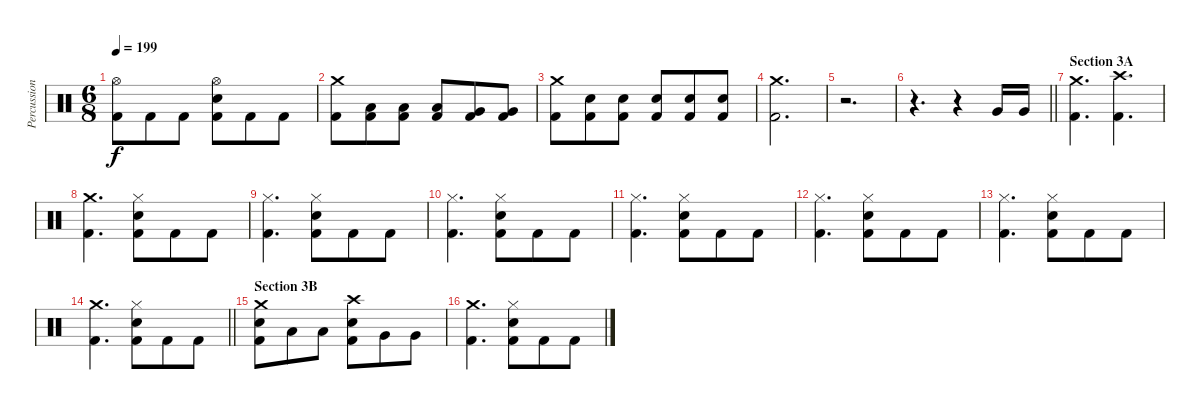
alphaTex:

\track ("Percussion" "Percussion") {instrument percussion}
\staff {score}
\articulation defaults
\ts (6 8)
\tempo 199
\clef neutral
\ks c
("Hi-Hat (open)" "Kick (hit) 2").8{dy f} "Kick (hit) 2".8 "Kick (hit) 2".8 ("Hi-Hat (open)" "Electric Snare (hit)" "Kick (hit) 2").8 "Kick (hit) 2".8 "Kick (hit) 2".8 |
("Crash medium (hit)" "Kick (hit) 2").8 ("Low Tom (hit)" "Kick (hit) 2").8 ("Low Tom (hit)" "Kick (hit) 2").8 ("Low Tom (hit)" "Kick (hit) 2").8 ("Very Low Tom (hit)" "Kick (hit) 2").8 ("Very Low Tom (hit)" "Kick (hit) 2").8 |
("Crash medium (hit)" "Kick (hit) 2").8 ("Electric Snare (hit)" "Kick (hit) 2").8 ("Electric Snare (hit)" "Kick (hit) 2").8 ("Electric Snare (hit)" "Kick (hit) 2").8 ("Electric Snare (hit)" "Kick (hit) 2").8 ("Electric Snare (hit)" "Kick (hit) 2").8 |
("Crash medium (hit)" "Kick (hit) 2").2{d} |
r.2{d} |
\barLineRight lightlight
r.4{d} r.4 "Very Low Tom (hit)".16 "Very Low Tom (hit)".16 |
\section ("" "Section 3A")
("Crash medium (hit)" "Kick (hit) 2").4{d} ("Crash high (hit)" "Kick (hit) 2").4{d} |
("Crash medium (hit)" "Kick (hit) 2").4{d} ("Hi-Hat (closed)" "Electric Snare (hit)" "Kick (hit) 2").8 "Kick (hit) 2".8 "Kick (hit) 2".8 |
("Hi-Hat (closed)" "Kick (hit) 2").4{d} ("Hi-Hat (closed)" "Electric Snare (hit)" "Kick (hit) 2").8 "Kick (hit) 2".8 "Kick (hit) 2".8 |
("Hi-Hat (closed)" "Kick (hit) 2").4{d} ("Hi-Hat (closed)" "Electric Snare (hit)" "Kick (hit) 2").8 "Kick (hit) 2".8 "Kick (hit) 2".8 |
("Hi-Hat (closed)" "Kick (hit) 2").4{d} ("Hi-Hat (closed)" "Electric Snare (hit)" "Kick (hit) 2").8 "Kick (hit) 2".8 "Kick (hit) 2".8 |
("Hi-Hat (closed)" "Kick (hit) 2").4{d} ("Hi-Hat (closed)" "Electric Snare (hit)" "Kick (hit) 2").8 "Kick (hit) 2".8 "Kick (hit) 2".8 |
("Hi-Hat (closed)" "Kick (hit) 2").4{d} ("Hi-Hat (closed)" "Electric Snare (hit)" "Kick (hit) 2").8 "Kick (hit) 2".8 "Kick (hit) 2".8 |
\barLineRight lightlight
("Crash medium (hit)" "Kick (hit) 2").4{d} ("Hi-Hat (closed)" "Electric Snare (hit)" "Kick (hit) 2").8 "Kick (hit) 2".8 "Kick (hit) 2".8 |
\section ("" "Section 3B")
("Crash medium (hit)" "Electric Snare (hit)" "Kick (hit) 2").8 "Low Tom (hit)".8 "Low Tom (hit)".8 ("Crash high (hit)" "Electric Snare (hit)" "Kick (hit) 2").8 "Very Low Tom (hit)".8 "Very Low Tom (hit)".8 |
("Crash medium (hit)" "Kick (hit) 2").4{d} ("Hi-Hat (closed)" "Electric Snare (hit)" "Kick (hit) 2").8 "Kick (hit) 2".8 "Kick (hit) 2".8
